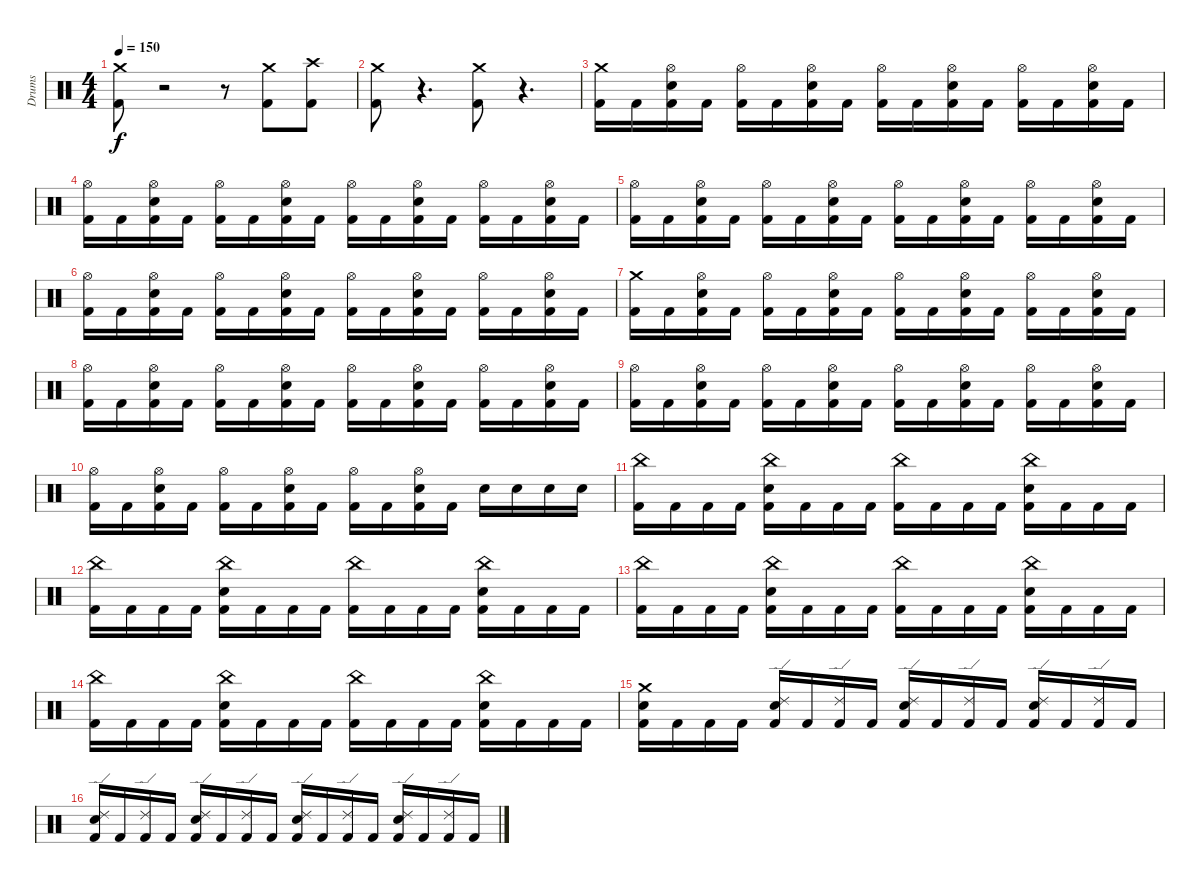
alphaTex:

\track ("Drums" "Drums") {instrument percussion}
\staff {score}
\articulation defaults
\ts (4 4)
\tempo 150
\clef neutral
\ks c
("Crash medium (hit)" "Kick (hit) 2").8{dy f} r.2 r.8 ("Crash medium (hit)" "Kick (hit) 2").8 ("Crash high (hit)" "Kick (hit) 2").8 |
("Crash medium (hit)" "Kick (hit) 2").8 r.4{d} ("Crash medium (hit)" "Kick (hit) 2").8 r.4{d} |
("Crash medium (hit)" "Kick (hit) 2").16 "Kick (hit) 2".16 ("Hi-Hat (open)" "Electric Snare (hit)" "Kick (hit) 2").16 "Kick (hit) 2".16 ("Hi-Hat (open)" "Kick (hit) 2").16 "Kick (hit) 2".16 ("Hi-Hat (open)" "Electric Snare (hit)" "Kick (hit) 2").16 "Kick (hit) 2".16 ("Hi-Hat (open)" "Kick (hit) 2").16 "Kick (hit) 2".16 ("Hi-Hat (open)" "Electric Snare (hit)" "Kick (hit) 2").16 "Kick (hit) 2".16 ("Hi-Hat (open)" "Kick (hit) 2").16 "Kick (hit) 2".16 ("Hi-Hat (open)" "Electric Snare (hit)" "Kick (hit) 2").16 "Kick (hit) 2".16 |
("Hi-Hat (open)" "Kick (hit) 2").16 "Kick (hit) 2".16 ("Hi-Hat (open)" "Electric Snare (hit)" "Kick (hit) 2").16 "Kick (hit) 2".16 ("Hi-Hat (open)" "Kick (hit) 2").16 "Kick (hit) 2".16 ("Hi-Hat (open)" "Electric Snare (hit)" "Kick (hit) 2").16 "Kick (hit) 2".16 ("Hi-Hat (open)" "Kick (hit) 2").16 "Kick (hit) 2".16 ("Hi-Hat (open)" "Electric Snare (hit)" "Kick (hit) 2").16 "Kick (hit) 2".16 ("Hi-Hat (open)" "Kick (hit) 2").16 "Kick (hit) 2".16 ("Hi-Hat (open)" "Electric Snare (hit)" "Kick (hit) 2").16 "Kick (hit) 2".16 |
("Hi-Hat (open)" "Kick (hit) 2").16 "Kick (hit) 2".16 ("Hi-Hat (open)" "Electric Snare (hit)" "Kick (hit) 2").16 "Kick (hit) 2".16 ("Hi-Hat (open)" "Kick (hit) 2").16 "Kick (hit) 2".16 ("Hi-Hat (open)" "Electric Snare (hit)" "Kick (hit) 2").16 "Kick (hit) 2".16 ("Hi-Hat (open)" "Kick (hit) 2").16 "Kick (hit) 2".16 ("Hi-Hat (open)" "Electric Snare (hit)" "Kick (hit) 2").16 "Kick (hit) 2".16 ("Hi-Hat (open)" "Kick (hit) 2").16 "Kick (hit) 2".16 ("Hi-Hat (open)" "Electric Snare (hit)" "Kick (hit) 2").16 "Kick (hit) 2".16 |
("Hi-Hat (open)" "Kick (hit) 2").16 "Kick (hit) 2".16 ("Hi-Hat (open)" "Electric Snare (hit)" "Kick (hit) 2").16 "Kick (hit) 2".16 ("Hi-Hat (open)" "Kick (hit) 2").16 "Kick (hit) 2".16 ("Hi-Hat (open)" "Electric Snare (hit)" "Kick (hit) 2").16 "Kick (hit) 2".16 ("Hi-Hat (open)" "Kick (hit) 2").16 "Kick (hit) 2".16 ("Hi-Hat (open)" "Electric Snare (hit)" "Kick (hit) 2").16 "Kick (hit) 2".16 ("Hi-Hat (open)" "Kick (hit) 2").16 "Kick (hit) 2".16 ("Hi-Hat (open)" "Electric Snare (hit)" "Kick (hit) 2").16 "Kick (hit) 2".16 |
("Crash medium (hit)" "Kick (hit) 2").16 "Kick (hit) 2".16 ("Hi-Hat (open)" "Electric Snare (hit)" "Kick (hit) 2").16 "Kick (hit) 2".16 ("Hi-Hat (open)" "Kick (hit) 2").16 "Kick (hit) 2".16 ("Hi-Hat (open)" "Electric Snare (hit)" "Kick (hit) 2").16 "Kick (hit) 2".16 ("Hi-Hat (open)" "Kick (hit) 2").16 "Kick (hit) 2".16 ("Hi-Hat (open)" "Electric Snare (hit)" "Kick (hit) 2").16 "Kick (hit) 2".16 ("Hi-Hat (open)" "Kick (hit) 2").16 "Kick (hit) 2".16 ("Hi-Hat (open)" "Electric Snare (hit)" "Kick (hit) 2").16 "Kick (hit) 2".16 |
("Hi-Hat (open)" "Kick (hit) 2").16 "Kick (hit) 2".16 ("Hi-Hat (open)" "Electric Snare (hit)" "Kick (hit) 2").16 "Kick (hit) 2".16 ("Hi-Hat (open)" "Kick (hit) 2").16 "Kick (hit) 2".16 ("Hi-Hat (open)" "Electric Snare (hit)" "Kick (hit) 2").16 "Kick (hit) 2".16 ("Hi-Hat (open)" "Kick (hit) 2").16 "Kick (hit) 2".16 ("Hi-Hat (open)" "Electric Snare (hit)" "Kick (hit) 2").16 "Kick (hit) 2".16 ("Hi-Hat (open)" "Kick (hit) 2").16 "Kick (hit) 2".16 ("Hi-Hat (open)" "Electric Snare (hit)" "Kick (hit) 2").16 "Kick (hit) 2".16 |
("Hi-Hat (open)" "Kick (hit) 2").16 "Kick (hit) 2".16 ("Hi-Hat (open)" "Electric Snare (hit)" "Kick (hit) 2").16 "Kick (hit) 2".16 ("Hi-Hat (open)" "Kick (hit) 2").16 "Kick (hit) 2".16 ("Hi-Hat (open)" "Electric Snare (hit)" "Kick (hit) 2").16 "Kick (hit) 2".16 ("Hi-Hat (open)" "Kick (hit) 2").16 "Kick (hit) 2".16 ("Hi-Hat (open)" "Electric Snare (hit)" "Kick (hit) 2").16 "Kick (hit) 2".16 ("Hi-Hat (open)" "Kick (hit) 2").16 "Kick (hit) 2".16 ("Hi-Hat (open)" "Electric Snare (hit)" "Kick (hit) 2").16 "Kick (hit) 2".16 |
("Hi-Hat (open)" "Kick (hit) 2").16 "Kick (hit) 2".16 ("Hi-Hat (open)" "Electric Snare (hit)" "Kick (hit) 2").16 "Kick (hit) 2".16 ("Hi-Hat (open)" "Kick (hit) 2").16 "Kick (hit) 2".16 ("Hi-Hat (open)" "Electric Snare (hit)" "Kick (hit) 2").16 "Kick (hit) 2".16 ("Hi-Hat (open)" "Kick (hit) 2").16 "Kick (hit) 2".16 ("Hi-Hat (open)" "Electric Snare (hit)" "Kick (hit) 2").16 "Kick (hit) 2".16 "Electric Snare (hit)".16 "Electric Snare (hit)".16 "Electric Snare (hit)".16 "Electric Snare (hit)".16 |
("China (hit)" "Kick (hit) 2").16 "Kick (hit) 2".16 "Kick (hit) 2".16 "Kick (hit) 2".16 ("China (hit)" "Electric Snare (hit)" "Kick (hit) 2").16 "Kick (hit) 2".16 "Kick (hit) 2".16 "Kick (hit) 2".16 ("China (hit)" "Kick (hit) 2").16 "Kick (hit) 2".16 "Kick (hit) 2".16 "Kick (hit) 2".16 ("China (hit)" "Electric Snare (hit)" "Kick (hit) 2").16 "Kick (hit) 2".16 "Kick (hit) 2".16 "Kick (hit) 2".16 |
("China (hit)" "Kick (hit) 2").16 "Kick (hit) 2".16 "Kick (hit) 2".16 "Kick (hit) 2".16 ("China (hit)" "Electric Snare (hit)" "Kick (hit) 2").16 "Kick (hit) 2".16 "Kick (hit) 2".16 "Kick (hit) 2".16 ("China (hit)" "Kick (hit) 2").16 "Kick (hit) 2".16 "Kick (hit) 2".16 "Kick (hit) 2".16 ("China (hit)" "Electric Snare (hit)" "Kick (hit) 2").16 "Kick (hit) 2".16 "Kick (hit) 2".16 "Kick (hit) 2".16 |
("China (hit)" "Kick (hit) 2").16 "Kick (hit) 2".16 "Kick (hit) 2".16 "Kick (hit) 2".16 ("China (hit)" "Electric Snare (hit)" "Kick (hit) 2").16 "Kick (hit) 2".16 "Kick (hit) 2".16 "Kick (hit) 2".16 ("China (hit)" "Kick (hit) 2").16 "Kick (hit) 2".16 "Kick (hit) 2".16 "Kick (hit) 2".16 ("China (hit)" "Electric Snare (hit)" "Kick (hit) 2").16 "Kick (hit) 2".16 "Kick (hit) 2".16 "Kick (hit) 2".16 |
("China (hit)" "Kick (hit) 2").16 "Kick (hit) 2".16 "Kick (hit) 2".16 "Kick (hit) 2".16 ("China (hit)" "Electric Snare (hit)" "Kick (hit) 2").16 "Kick (hit) 2".16 "Kick (hit) 2".16 "Kick (hit) 2".16 ("China (hit)" "Kick (hit) 2").16 "Kick (hit) 2".16 "Kick (hit) 2".16 "Kick (hit) 2".16 ("China (hit)" "Electric Snare (hit)" "Kick (hit) 2").16 "Kick (hit) 2".16 "Kick (hit) 2".16 "Kick (hit) 2".16 |
("Crash medium (hit)" "Electric Snare (hit)" "Kick (hit) 2").16 "Kick (hit) 2".16 "Kick (hit) 2".16 "Kick (hit) 2".16 ("Ride (edge) 2" "Electric Snare (hit)" "Kick (hit) 2").16 "Kick (hit) 2".16 ("Ride (edge) 2" "Kick (hit) 2").16 "Kick (hit) 2".16 ("Ride (edge) 2" "Electric Snare (hit)" "Kick (hit) 2").16 "Kick (hit) 2".16 ("Ride (edge) 2" "Kick (hit) 2").16 "Kick (hit) 2".16 ("Ride (edge) 2" "Electric Snare (hit)" "Kick (hit) 2").16 "Kick (hit) 2".16 ("Ride (edge) 2" "Kick (hit) 2").16 "Kick (hit) 2".16 |
("Ride (edge) 2" "Electric Snare (hit)" "Kick (hit) 2").16 "Kick (hit) 2".16 ("Ride (edge) 2" "Kick (hit) 2").16 "Kick (hit) 2".16 ("Ride (edge) 2" "Electric Snare (hit)" "Kick (hit) 2").16 "Kick (hit) 2".16 ("Ride (edge) 2" "Kick (hit) 2").16 "Kick (hit) 2".16 ("Ride (edge) 2" "Electric Snare (hit)" "Kick (hit) 2").16 "Kick (hit) 2".16 ("Ride (edge) 2" "Kick (hit) 2").16 "Kick (hit) 2".16 ("Ride (edge) 2" "Electric Snare (hit)" "Kick (hit) 2").16 "Kick (hit) 2".16 ("Ride (edge) 2" "Kick (hit) 2").16 "Kick (hit) 2".16
